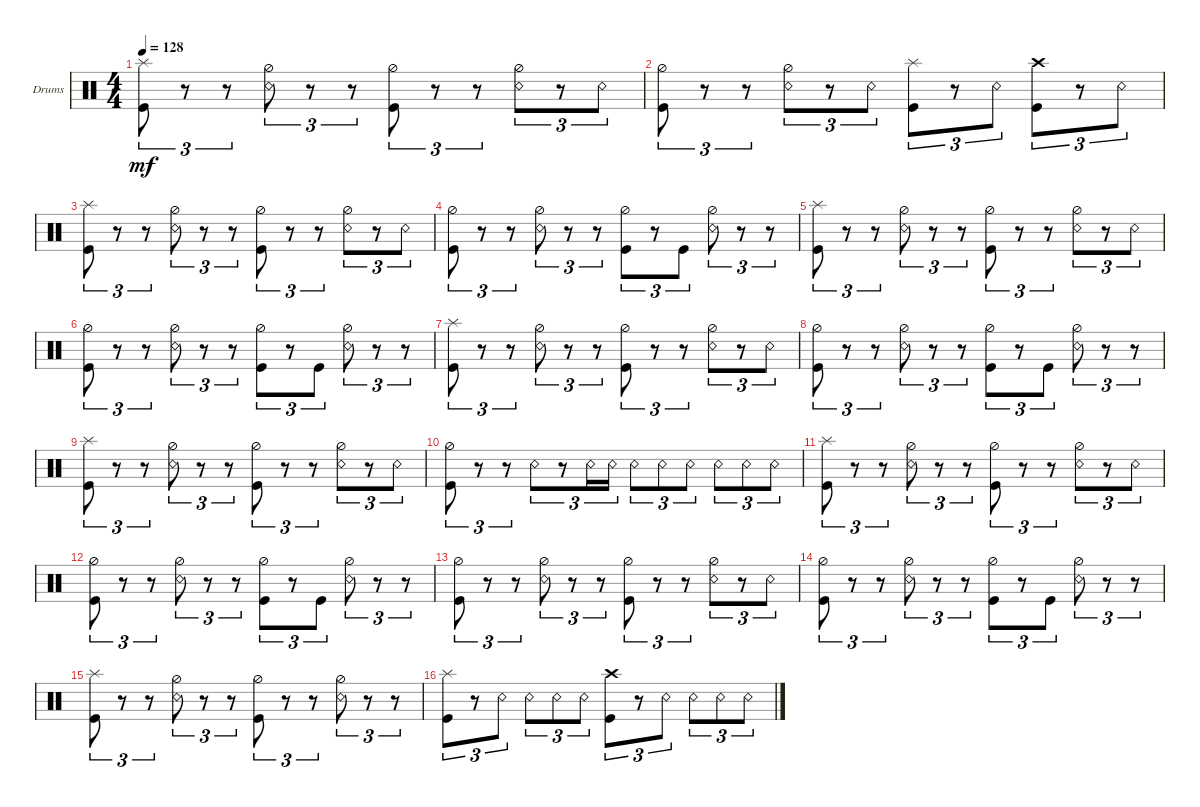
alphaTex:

\defaultSystemsLayout 4
\bracketExtendMode groupsimilarinstruments
\firstSystemTrackNameOrientation horizontal
\otherSystemsTrackNameOrientation horizontal
\track ("Drumkit" "Drums") {instrument percussion}
\staff {score}
\articulation defaults
\ts (4 4)
\tempo 128
\clef neutral
\ks c
("Kick (hit)" "Splash (hit)").8{tu (3 2) dy mf} r.8{tu (3 2)} r.8{tu (3 2)} ("Snare (rim shot)" "Hi-Hat (half)").8{tu (3 2)} r.8{tu (3 2)} r.8{tu (3 2)} ("Kick (hit)" "Hi-Hat (half)").8{tu (3 2)} r.8{tu (3 2)} r.8{tu (3 2)} ("Snare (rim shot)" "Hi-Hat (half)").8{tu (3 2)} r.8{tu (3 2)} "Snare (rim shot)".8{tu (3 2)} |
("Kick (hit)" "Hi-Hat (half)").8{tu (3 2)} r.8{tu (3 2)} r.8{tu (3 2)} ("Snare (rim shot)" "Hi-Hat (half)").8{tu (3 2)} r.8{tu (3 2)} "Snare (rim shot)".8{tu (3 2)} ("Kick (hit)" "Splash (hit)").8{tu (3 2)} r.8{tu (3 2)} "Snare (rim shot)".8{tu (3 2)} ("Kick (hit)" "Crash high (hit)").8{tu (3 2)} r.8{tu (3 2)} "Snare (rim shot)".8{tu (3 2)} |
("Kick (hit)" "Splash (hit)").8{tu (3 2)} r.8{tu (3 2)} r.8{tu (3 2)} ("Snare (rim shot)" "Hi-Hat (half)").8{tu (3 2)} r.8{tu (3 2)} r.8{tu (3 2)} ("Kick (hit)" "Hi-Hat (half)").8{tu (3 2)} r.8{tu (3 2)} r.8{tu (3 2)} ("Snare (rim shot)" "Hi-Hat (half)").8{tu (3 2)} r.8{tu (3 2)} "Snare (rim shot)".8{tu (3 2)} |
("Kick (hit)" "Hi-Hat (half)").8{tu (3 2)} r.8{tu (3 2)} r.8{tu (3 2)} ("Snare (rim shot)" "Hi-Hat (half)").8{tu (3 2)} r.8{tu (3 2)} r.8{tu (3 2)} ("Kick (hit)" "Hi-Hat (half)").8{tu (3 2)} r.8{tu (3 2)} "Kick (hit)".8{tu (3 2)} ("Snare (rim shot)" "Hi-Hat (half)").8{tu (3 2)} r.8{tu (3 2)} r.8{tu (3 2)} |
("Kick (hit)" "Splash (hit)").8{tu (3 2)} r.8{tu (3 2)} r.8{tu (3 2)} ("Snare (rim shot)" "Hi-Hat (half)").8{tu (3 2)} r.8{tu (3 2)} r.8{tu (3 2)} ("Kick (hit)" "Hi-Hat (half)").8{tu (3 2)} r.8{tu (3 2)} r.8{tu (3 2)} ("Snare (rim shot)" "Hi-Hat (half)").8{tu (3 2)} r.8{tu (3 2)} "Snare (rim shot)".8{tu (3 2)} |
("Kick (hit)" "Hi-Hat (half)").8{tu (3 2)} r.8{tu (3 2)} r.8{tu (3 2)} ("Snare (rim shot)" "Hi-Hat (half)").8{tu (3 2)} r.8{tu (3 2)} r.8{tu (3 2)} ("Kick (hit)" "Hi-Hat (half)").8{tu (3 2)} r.8{tu (3 2)} "Kick (hit)".8{tu (3 2)} ("Snare (rim shot)" "Hi-Hat (half)").8{tu (3 2)} r.8{tu (3 2)} r.8{tu (3 2)} |
("Kick (hit)" "Splash (hit)").8{tu (3 2)} r.8{tu (3 2)} r.8{tu (3 2)} ("Snare (rim shot)" "Hi-Hat (half)").8{tu (3 2)} r.8{tu (3 2)} r.8{tu (3 2)} ("Kick (hit)" "Hi-Hat (half)").8{tu (3 2)} r.8{tu (3 2)} r.8{tu (3 2)} ("Snare (rim shot)" "Hi-Hat (half)").8{tu (3 2)} r.8{tu (3 2)} "Snare (rim shot)".8{tu (3 2)} |
("Kick (hit)" "Hi-Hat (half)").8{tu (3 2)} r.8{tu (3 2)} r.8{tu (3 2)} ("Snare (rim shot)" "Hi-Hat (half)").8{tu (3 2)} r.8{tu (3 2)} r.8{tu (3 2)} ("Kick (hit)" "Hi-Hat (half)").8{tu (3 2)} r.8{tu (3 2)} "Kick (hit)".8{tu (3 2)} ("Snare (rim shot)" "Hi-Hat (half)").8{tu (3 2)} r.8{tu (3 2)} r.8{tu (3 2)} |
("Kick (hit)" "Splash (hit)").8{tu (3 2)} r.8{tu (3 2)} r.8{tu (3 2)} ("Snare (rim shot)" "Hi-Hat (half)").8{tu (3 2)} r.8{tu (3 2)} r.8{tu (3 2)} ("Kick (hit)" "Hi-Hat (half)").8{tu (3 2)} r.8{tu (3 2)} r.8{tu (3 2)} ("Snare (rim shot)" "Hi-Hat (half)").8{tu (3 2)} r.8{tu (3 2)} "Snare (rim shot)".8{tu (3 2)} |
("Kick (hit)" "Hi-Hat (half)").8{tu (3 2)} r.8{tu (3 2)} r.8{tu (3 2)} "Snare (rim shot)".8{tu (3 2)} r.8{tu (3 2)} "Snare (rim shot)".16{tu (3 2)} "Snare (rim shot)".16{tu (3 2)} "Snare (rim shot)".8{tu (3 2)} "Snare (rim shot)".8{tu (3 2)} "Snare (rim shot)".8{tu (3 2)} "Snare (rim shot)".8{tu (3 2)} "Snare (rim shot)".8{tu (3 2)} "Snare (rim shot)".8{tu (3 2)} |
("Kick (hit)" "Splash (hit)").8{tu (3 2)} r.8{tu (3 2)} r.8{tu (3 2)} ("Snare (rim shot)" "Hi-Hat (half)").8{tu (3 2)} r.8{tu (3 2)} r.8{tu (3 2)} ("Kick (hit)" "Hi-Hat (half)").8{tu (3 2)} r.8{tu (3 2)} r.8{tu (3 2)} ("Snare (rim shot)" "Hi-Hat (half)").8{tu (3 2)} r.8{tu (3 2)} "Snare (rim shot)".8{tu (3 2)} |
("Kick (hit)" "Hi-Hat (half)").8{tu (3 2)} r.8{tu (3 2)} r.8{tu (3 2)} ("Snare (rim shot)" "Hi-Hat (half)").8{tu (3 2)} r.8{tu (3 2)} r.8{tu (3 2)} ("Kick (hit)" "Hi-Hat (half)").8{tu (3 2)} r.8{tu (3 2)} "Kick (hit)".8{tu (3 2)} ("Snare (rim shot)" "Hi-Hat (half)").8{tu (3 2)} r.8{tu (3 2)} r.8{tu (3 2)} |
("Kick (hit)" "Hi-Hat (half)").8{tu (3 2)} r.8{tu (3 2)} r.8{tu (3 2)} ("Snare (rim shot)" "Hi-Hat (half)").8{tu (3 2)} r.8{tu (3 2)} r.8{tu (3 2)} ("Kick (hit)" "Hi-Hat (half)").8{tu (3 2)} r.8{tu (3 2)} r.8{tu (3 2)} ("Snare (rim shot)" "Hi-Hat (half)").8{tu (3 2)} r.8{tu (3 2)} "Snare (rim shot)".8{tu (3 2)} |
("Kick (hit)" "Hi-Hat (half)").8{tu (3 2)} r.8{tu (3 2)} r.8{tu (3 2)} ("Snare (rim shot)" "Hi-Hat (half)").8{tu (3 2)} r.8{tu (3 2)} r.8{tu (3 2)} ("Kick (hit)" "Hi-Hat (half)").8{tu (3 2)} r.8{tu (3 2)} "Kick (hit)".8{tu (3 2)} ("Snare (rim shot)" "Hi-Hat (half)").8{tu (3 2)} r.8{tu (3 2)} r.8{tu (3 2)} |
("Kick (hit)" "Splash (hit)").8{tu (3 2)} r.8{tu (3 2)} r.8{tu (3 2)} ("Snare (rim shot)" "Hi-Hat (half)").8{tu (3 2)} r.8{tu (3 2)} r.8{tu (3 2)} ("Kick (hit)" "Hi-Hat (half)").8{tu (3 2)} r.8{tu (3 2)} r.8{tu (3 2)} ("Snare (rim shot)" "Hi-Hat (half)").8{tu (3 2)} r.8{tu (3 2)} r.8{tu (3 2)} |
("Kick (hit)" "Splash (hit)").8{tu (3 2)} r.8{tu (3 2)} "Snare (rim shot)".8{tu (3 2)} "Snare (rim shot)".8{tu (3 2)} "Snare (rim shot)".8{tu (3 2)} "Snare (rim shot)".8{tu (3 2)} ("Kick (hit)" "Crash high (hit)").8{tu (3 2)} r.8{tu (3 2)} "Snare (rim shot)".8{tu (3 2)} "Snare (rim shot)".8{tu (3 2)} "Snare (rim shot)".8{tu (3 2)} "Snare (rim shot)".8{tu (3 2)}
